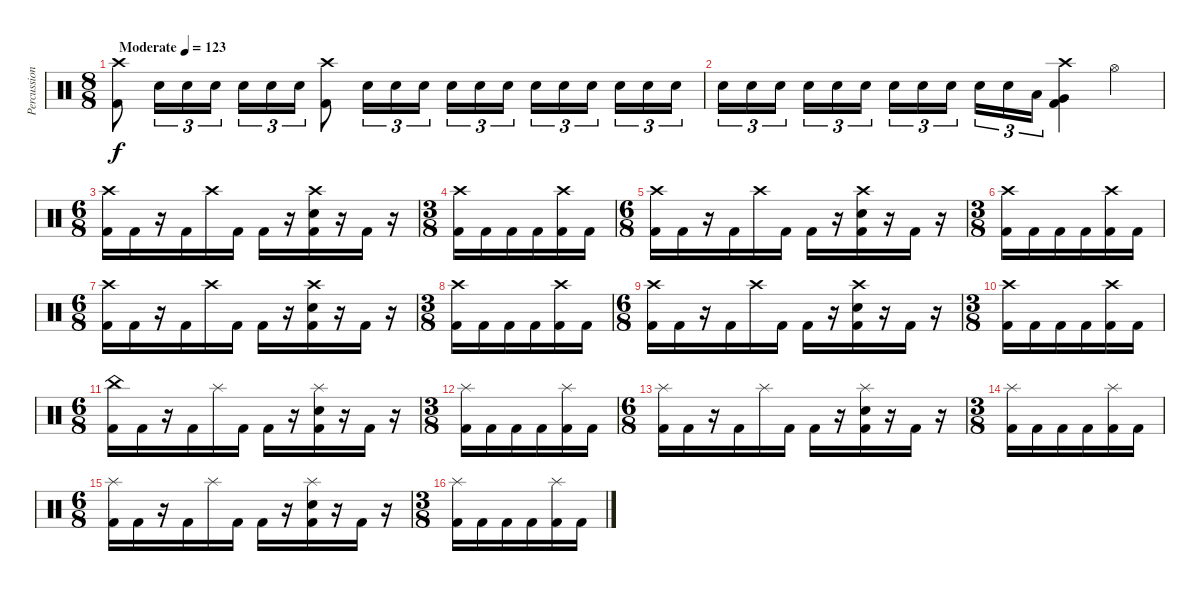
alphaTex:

\track ("Percussion" "Percussion") {instrument percussion}
\staff {score}
\articulation defaults
\ts (8 8)
\tempo (123 "Moderate")
\clef neutral
\ks c
("Crash high (hit)" "Kick (hit) 2").8{dy f} "Snare (hit) 2".16{tu (3 2)} "Snare (hit) 2".16{tu (3 2)} "Snare (hit) 2".16{tu (3 2)} "Snare (hit) 2".16{tu (3 2)} "Snare (hit) 2".16{tu (3 2)} "Snare (hit) 2".16{tu (3 2)} ("Crash high (hit)" "Kick (hit) 2").8 "Snare (hit) 2".16{tu (3 2)} "Snare (hit) 2".16{tu (3 2)} "Snare (hit) 2".16{tu (3 2)} "Snare (hit) 2".16{tu (3 2)} "Snare (hit) 2".16{tu (3 2)} "Snare (hit) 2".16{tu (3 2)} "Snare (hit) 2".16{tu (3 2)} "Snare (hit) 2".16{tu (3 2)} "Snare (hit) 2".16{tu (3 2)} "Snare (hit) 2".16{tu (3 2)} "Snare (hit) 2".16{tu (3 2)} "Snare (hit) 2".16{tu (3 2)} |
"Snare (hit) 2".16{tu (3 2)} "Snare (hit) 2".16{tu (3 2)} "Snare (hit) 2".16{tu (3 2)} "Snare (hit) 2".16{tu (3 2)} "Snare (hit) 2".16{tu (3 2)} "Snare (hit) 2".16{tu (3 2)} "Snare (hit) 2".16{tu (3 2)} "Snare (hit) 2".16{tu (3 2)} "Snare (hit) 2".16{tu (3 2)} "Snare (hit) 2".16{tu (3 2)} "Snare (hit) 2".16{tu (3 2)} "Low Tom (hit)".16{tu (3 2)} ("Crash high (hit)" "Very Low Tom (hit)" "Kick (hit) 2").4 "Hi-Hat (open)".4 |
\ts (6 8)
("Crash high (hit)" "Kick (hit) 2").16 "Kick (hit) 2".16 r.16 "Kick (hit) 2".16 "Crash high (hit)".16 "Kick (hit) 2".16 "Kick (hit) 2".16 r.16 ("Crash high (hit)" "Snare (hit) 2" "Kick (hit) 2").16 r.16 "Kick (hit) 2".16 r.16 |
\ts (3 8)
("Crash high (hit)" "Kick (hit) 2").16 "Kick (hit) 2".16 "Kick (hit) 2".16 "Kick (hit) 2".16 ("Crash high (hit)" "Kick (hit) 2").16 "Kick (hit) 2".16 |
\ts (6 8)
("Crash high (hit)" "Kick (hit) 2").16 "Kick (hit) 2".16 r.16 "Kick (hit) 2".16 "Crash high (hit)".16 "Kick (hit) 2".16 "Kick (hit) 2".16 r.16 ("Crash high (hit)" "Snare (hit) 2" "Kick (hit) 2").16 r.16 "Kick (hit) 2".16 r.16 |
\ts (3 8)
("Crash high (hit)" "Kick (hit) 2").16 "Kick (hit) 2".16 "Kick (hit) 2".16 "Kick (hit) 2".16 ("Crash high (hit)" "Kick (hit) 2").16 "Kick (hit) 2".16 |
\ts (6 8)
("Crash high (hit)" "Kick (hit) 2").16 "Kick (hit) 2".16 r.16 "Kick (hit) 2".16 "Crash high (hit)".16 "Kick (hit) 2".16 "Kick (hit) 2".16 r.16 ("Crash high (hit)" "Snare (hit) 2" "Kick (hit) 2").16 r.16 "Kick (hit) 2".16 r.16 |
\ts (3 8)
("Crash high (hit)" "Kick (hit) 2").16 "Kick (hit) 2".16 "Kick (hit) 2".16 "Kick (hit) 2".16 ("Crash high (hit)" "Kick (hit) 2").16 "Kick (hit) 2".16 |
\ts (6 8)
("Crash high (hit)" "Kick (hit) 2").16 "Kick (hit) 2".16 r.16 "Kick (hit) 2".16 "Crash high (hit)".16 "Kick (hit) 2".16 "Kick (hit) 2".16 r.16 ("Crash high (hit)" "Snare (hit) 2" "Kick (hit) 2").16 r.16 "Kick (hit) 2".16 r.16 |
\ts (3 8)
("Crash high (hit)" "Kick (hit) 2").16 "Kick (hit) 2".16 "Kick (hit) 2".16 "Kick (hit) 2".16 ("Crash high (hit)" "Kick (hit) 2").16 "Kick (hit) 2".16 |
\ts (6 8)
("China (hit)" "Kick (hit) 2").16 "Kick (hit) 2".16 r.16 "Kick (hit) 2".16 "Splash (hit)".16 "Kick (hit) 2".16 "Kick (hit) 2".16 r.16 ("Splash (hit)" "Snare (hit) 2" "Kick (hit) 2").16 r.16 "Kick (hit) 2".16 r.16 |
\ts (3 8)
("Splash (hit)" "Kick (hit) 2").16 "Kick (hit) 2".16 "Kick (hit) 2".16 "Kick (hit) 2".16 ("Splash (hit)" "Kick (hit) 2").16 "Kick (hit) 2".16 |
\ts (6 8)
("Splash (hit)" "Kick (hit) 2").16 "Kick (hit) 2".16 r.16 "Kick (hit) 2".16 "Splash (hit)".16 "Kick (hit) 2".16 "Kick (hit) 2".16 r.16 ("Splash (hit)" "Snare (hit) 2" "Kick (hit) 2").16 r.16 "Kick (hit) 2".16 r.16 |
\ts (3 8)
("Splash (hit)" "Kick (hit) 2").16 "Kick (hit) 2".16 "Kick (hit) 2".16 "Kick (hit) 2".16 ("Splash (hit)" "Kick (hit) 2").16 "Kick (hit) 2".16 |
\ts (6 8)
("Splash (hit)" "Kick (hit) 2").16 "Kick (hit) 2".16 r.16 "Kick (hit) 2".16 "Splash (hit)".16 "Kick (hit) 2".16 "Kick (hit) 2".16 r.16 ("Splash (hit)" "Snare (hit) 2" "Kick (hit) 2").16 r.16 "Kick (hit) 2".16 r.16 |
\ts (3 8)
("Splash (hit)" "Kick (hit) 2").16 "Kick (hit) 2".16 "Kick (hit) 2".16 "Kick (hit) 2".16 ("Splash (hit)" "Kick (hit) 2").16 "Kick (hit) 2".16
